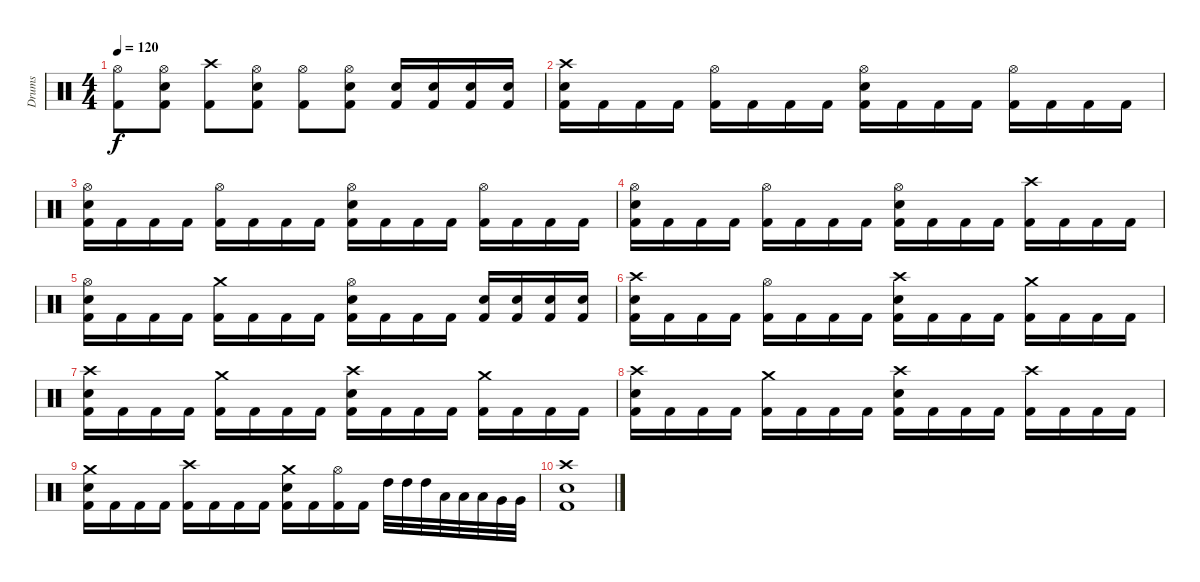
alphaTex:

\track ("Drums" "Drums") {instrument percussion}
\staff {score}
\articulation defaults
\ts (4 4)
\tempo 120
\clef neutral
\ks c
("Hi-Hat (open)" "Kick (hit) 2").8{dy f} ("Hi-Hat (open)" "Electric Snare (hit)" "Kick (hit) 2").8 ("Crash high (hit)" "Kick (hit) 2").8 ("Hi-Hat (open)" "Electric Snare (hit)" "Kick (hit) 2").8 ("Hi-Hat (open)" "Kick (hit) 2").8 ("Hi-Hat (open)" "Electric Snare (hit)" "Kick (hit) 2").8 ("Electric Snare (hit)" "Kick (hit) 2").16 ("Electric Snare (hit)" "Kick (hit) 2").16 ("Electric Snare (hit)" "Kick (hit) 2").16 ("Electric Snare (hit)" "Kick (hit) 2").16 |
("Crash high (hit)" "Electric Snare (hit)" "Kick (hit) 2").16 "Kick (hit) 2".16 "Kick (hit) 2".16 "Kick (hit) 2".16 ("Hi-Hat (open)" "Kick (hit) 2").16 "Kick (hit) 2".16 "Kick (hit) 2".16 "Kick (hit) 2".16 ("Hi-Hat (open)" "Electric Snare (hit)" "Kick (hit) 2").16 "Kick (hit) 2".16 "Kick (hit) 2".16 "Kick (hit) 2".16 ("Hi-Hat (open)" "Kick (hit) 2").16 "Kick (hit) 2".16 "Kick (hit) 2".16 "Kick (hit) 2".16 |
("Hi-Hat (open)" "Electric Snare (hit)" "Kick (hit) 2").16 "Kick (hit) 2".16 "Kick (hit) 2".16 "Kick (hit) 2".16 ("Hi-Hat (open)" "Kick (hit) 2").16 "Kick (hit) 2".16 "Kick (hit) 2".16 "Kick (hit) 2".16 ("Hi-Hat (open)" "Electric Snare (hit)" "Kick (hit) 2").16 "Kick (hit) 2".16 "Kick (hit) 2".16 "Kick (hit) 2".16 ("Hi-Hat (open)" "Kick (hit) 2").16 "Kick (hit) 2".16 "Kick (hit) 2".16 "Kick (hit) 2".16 |
("Hi-Hat (open)" "Electric Snare (hit)" "Kick (hit) 2").16 "Kick (hit) 2".16 "Kick (hit) 2".16 "Kick (hit) 2".16 ("Hi-Hat (open)" "Kick (hit) 2").16 "Kick (hit) 2".16 "Kick (hit) 2".16 "Kick (hit) 2".16 ("Hi-Hat (open)" "Electric Snare (hit)" "Kick (hit) 2").16 "Kick (hit) 2".16 "Kick (hit) 2".16 "Kick (hit) 2".16 ("Crash high (hit)" "Kick (hit) 2").16 "Kick (hit) 2".16 "Kick (hit) 2".16 "Kick (hit) 2".16 |
("Hi-Hat (open)" "Electric Snare (hit)" "Kick (hit) 2").16 "Kick (hit) 2".16 "Kick (hit) 2".16 "Kick (hit) 2".16 ("Crash medium (hit)" "Kick (hit) 2").16 "Kick (hit) 2".16 "Kick (hit) 2".16 "Kick (hit) 2".16 ("Hi-Hat (open)" "Electric Snare (hit)" "Kick (hit) 2").16 "Kick (hit) 2".16 "Kick (hit) 2".16 "Kick (hit) 2".16 ("Electric Snare (hit)" "Kick (hit) 2").16 ("Electric Snare (hit)" "Kick (hit) 2").16 ("Electric Snare (hit)" "Kick (hit) 2").16 ("Electric Snare (hit)" "Kick (hit) 2").16 |
("Crash high (hit)" "Electric Snare (hit)" "Kick (hit) 2").16 "Kick (hit) 2".16 "Kick (hit) 2".16 "Kick (hit) 2".16 ("Hi-Hat (open)" "Kick (hit) 2").16 "Kick (hit) 2".16 "Kick (hit) 2".16 "Kick (hit) 2".16 ("Crash high (hit)" "Electric Snare (hit)" "Kick (hit) 2").16 "Kick (hit) 2".16 "Kick (hit) 2".16 "Kick (hit) 2".16 ("Crash medium (hit)" "Kick (hit) 2").16 "Kick (hit) 2".16 "Kick (hit) 2".16 "Kick (hit) 2".16 |
("Crash high (hit)" "Electric Snare (hit)" "Kick (hit) 2").16 "Kick (hit) 2".16 "Kick (hit) 2".16 "Kick (hit) 2".16 ("Crash medium (hit)" "Kick (hit) 2").16 "Kick (hit) 2".16 "Kick (hit) 2".16 "Kick (hit) 2".16 ("Crash high (hit)" "Electric Snare (hit)" "Kick (hit) 2").16 "Kick (hit) 2".16 "Kick (hit) 2".16 "Kick (hit) 2".16 ("Crash medium (hit)" "Kick (hit) 2").16 "Kick (hit) 2".16 "Kick (hit) 2".16 "Kick (hit) 2".16 |
("Crash high (hit)" "Electric Snare (hit)" "Kick (hit) 2").16 "Kick (hit) 2".16 "Kick (hit) 2".16 "Kick (hit) 2".16 ("Crash medium (hit)" "Kick (hit) 2").16 "Kick (hit) 2".16 "Kick (hit) 2".16 "Kick (hit) 2".16 ("Crash high (hit)" "Electric Snare (hit)" "Kick (hit) 2").16 "Kick (hit) 2".16 "Kick (hit) 2".16 "Kick (hit) 2".16 ("Crash high (hit)" "Kick (hit) 2").16 "Kick (hit) 2".16 "Kick (hit) 2".16 "Kick (hit) 2".16 |
("Crash medium (hit)" "Electric Snare (hit)" "Kick (hit) 2").16 "Kick (hit) 2".16 "Kick (hit) 2".16 "Kick (hit) 2".16 ("Crash high (hit)" "Kick (hit) 2").16 "Kick (hit) 2".16 "Kick (hit) 2".16 "Kick (hit) 2".16 ("Crash medium (hit)" "Electric Snare (hit)" "Kick (hit) 2").16 "Kick (hit) 2".16 ("Hi-Hat (open)" "Kick (hit) 2").16 "Kick (hit) 2".16 "High Tom (hit)".32 "High Tom (hit)".32 "High Tom (hit)".32 "Low Tom (hit)".32 "Low Tom (hit)".32 "Low Tom (hit)".32 "Very Low Tom (hit)".32 "Very Low Tom (hit)".32 |
("Crash high (hit)" "Electric Snare (hit)" "Kick (hit) 2").1
